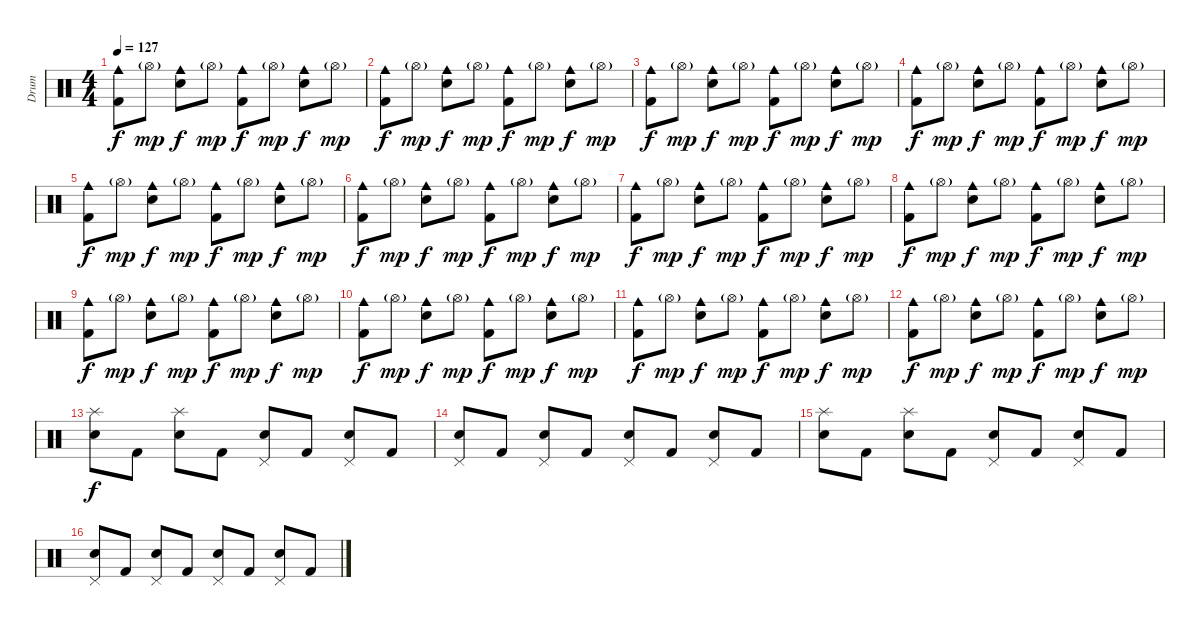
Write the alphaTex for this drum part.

\track ("Drum" "Drum") {instrument percussion}
\staff {score}
\articulation defaults
\ts (4 4)
\tempo 127
\clef neutral
\ks c
("Kick (hit) 2" "Cowbell medium (hit)").8{dy f} "Hi-Hat (open)"{g}.8{dy mp} ("Electric Snare (hit)" "Cowbell medium (hit)").8{dy f} "Hi-Hat (open)"{g}.8{dy mp} ("Kick (hit) 2" "Cowbell medium (hit)").8{dy f} "Hi-Hat (open)"{g}.8{dy mp} ("Electric Snare (hit)" "Cowbell medium (hit)").8{dy f} "Hi-Hat (open)"{g}.8{dy mp} |
("Kick (hit) 2" "Cowbell medium (hit)").8{dy f} "Hi-Hat (open)"{g}.8{dy mp} ("Electric Snare (hit)" "Cowbell medium (hit)").8{dy f} "Hi-Hat (open)"{g}.8{dy mp} ("Kick (hit) 2" "Cowbell medium (hit)").8{dy f} "Hi-Hat (open)"{g}.8{dy mp} ("Electric Snare (hit)" "Cowbell medium (hit)").8{dy f} "Hi-Hat (open)"{g}.8{dy mp} |
("Kick (hit) 2" "Cowbell medium (hit)").8{dy f} "Hi-Hat (open)"{g}.8{dy mp} ("Electric Snare (hit)" "Cowbell medium (hit)").8{dy f} "Hi-Hat (open)"{g}.8{dy mp} ("Kick (hit) 2" "Cowbell medium (hit)").8{dy f} "Hi-Hat (open)"{g}.8{dy mp} ("Electric Snare (hit)" "Cowbell medium (hit)").8{dy f} "Hi-Hat (open)"{g}.8{dy mp} |
("Kick (hit) 2" "Cowbell medium (hit)").8{dy f} "Hi-Hat (open)"{g}.8{dy mp} ("Electric Snare (hit)" "Cowbell medium (hit)").8{dy f} "Hi-Hat (open)"{g}.8{dy mp} ("Kick (hit) 2" "Cowbell medium (hit)").8{dy f} "Hi-Hat (open)"{g}.8{dy mp} ("Electric Snare (hit)" "Cowbell medium (hit)").8{dy f} "Hi-Hat (open)"{g}.8{dy mp} |
("Kick (hit) 2" "Cowbell medium (hit)").8{dy f} "Hi-Hat (open)"{g}.8{dy mp} ("Electric Snare (hit)" "Cowbell medium (hit)").8{dy f} "Hi-Hat (open)"{g}.8{dy mp} ("Kick (hit) 2" "Cowbell medium (hit)").8{dy f} "Hi-Hat (open)"{g}.8{dy mp} ("Electric Snare (hit)" "Cowbell medium (hit)").8{dy f} "Hi-Hat (open)"{g}.8{dy mp} |
("Kick (hit) 2" "Cowbell medium (hit)").8{dy f} "Hi-Hat (open)"{g}.8{dy mp} ("Electric Snare (hit)" "Cowbell medium (hit)").8{dy f} "Hi-Hat (open)"{g}.8{dy mp} ("Kick (hit) 2" "Cowbell medium (hit)").8{dy f} "Hi-Hat (open)"{g}.8{dy mp} ("Electric Snare (hit)" "Cowbell medium (hit)").8{dy f} "Hi-Hat (open)"{g}.8{dy mp} |
("Kick (hit) 2" "Cowbell medium (hit)").8{dy f} "Hi-Hat (open)"{g}.8{dy mp} ("Electric Snare (hit)" "Cowbell medium (hit)").8{dy f} "Hi-Hat (open)"{g}.8{dy mp} ("Kick (hit) 2" "Cowbell medium (hit)").8{dy f} "Hi-Hat (open)"{g}.8{dy mp} ("Electric Snare (hit)" "Cowbell medium (hit)").8{dy f} "Hi-Hat (open)"{g}.8{dy mp} |
("Kick (hit) 2" "Cowbell medium (hit)").8{dy f} "Hi-Hat (open)"{g}.8{dy mp} ("Electric Snare (hit)" "Cowbell medium (hit)").8{dy f} "Hi-Hat (open)"{g}.8{dy mp} ("Kick (hit) 2" "Cowbell medium (hit)").8{dy f} "Hi-Hat (open)"{g}.8{dy mp} ("Electric Snare (hit)" "Cowbell medium (hit)").8{dy f} "Hi-Hat (open)"{g}.8{dy mp} |
("Kick (hit) 2" "Cowbell medium (hit)").8{dy f} "Hi-Hat (open)"{g}.8{dy mp} ("Electric Snare (hit)" "Cowbell medium (hit)").8{dy f} "Hi-Hat (open)"{g}.8{dy mp} ("Kick (hit) 2" "Cowbell medium (hit)").8{dy f} "Hi-Hat (open)"{g}.8{dy mp} ("Electric Snare (hit)" "Cowbell medium (hit)").8{dy f} "Hi-Hat (open)"{g}.8{dy mp} |
("Kick (hit) 2" "Cowbell medium (hit)").8{dy f} "Hi-Hat (open)"{g}.8{dy mp} ("Electric Snare (hit)" "Cowbell medium (hit)").8{dy f} "Hi-Hat (open)"{g}.8{dy mp} ("Kick (hit) 2" "Cowbell medium (hit)").8{dy f} "Hi-Hat (open)"{g}.8{dy mp} ("Electric Snare (hit)" "Cowbell medium (hit)").8{dy f} "Hi-Hat (open)"{g}.8{dy mp} |
("Kick (hit) 2" "Cowbell medium (hit)").8{dy f} "Hi-Hat (open)"{g}.8{dy mp} ("Electric Snare (hit)" "Cowbell medium (hit)").8{dy f} "Hi-Hat (open)"{g}.8{dy mp} ("Kick (hit) 2" "Cowbell medium (hit)").8{dy f} "Hi-Hat (open)"{g}.8{dy mp} ("Electric Snare (hit)" "Cowbell medium (hit)").8{dy f} "Hi-Hat (open)"{g}.8{dy mp} |
("Kick (hit) 2" "Cowbell medium (hit)").8{dy f} "Hi-Hat (open)"{g}.8{dy mp} ("Electric Snare (hit)" "Cowbell medium (hit)").8{dy f} "Hi-Hat (open)"{g}.8{dy mp} ("Kick (hit) 2" "Cowbell medium (hit)").8{dy f} "Hi-Hat (open)"{g}.8{dy mp} ("Electric Snare (hit)" "Cowbell medium (hit)").8{dy f} "Hi-Hat (open)"{g}.8{dy mp} |
("Electric Snare (hit)" "Splash (hit)").8{dy f} "Kick (hit) 2".8 ("Electric Snare (hit)" "Splash (hit)").8 "Kick (hit) 2".8 ("Electric Snare (hit)" "Pedal Hi-Hat (hit)").8 "Kick (hit) 2".8 ("Electric Snare (hit)" "Pedal Hi-Hat (hit)").8 "Kick (hit) 2".8 |
("Electric Snare (hit)" "Pedal Hi-Hat (hit)").8 "Kick (hit) 2".8 ("Electric Snare (hit)" "Pedal Hi-Hat (hit)").8 "Kick (hit) 2".8 ("Electric Snare (hit)" "Pedal Hi-Hat (hit)").8 "Kick (hit) 2".8 ("Electric Snare (hit)" "Pedal Hi-Hat (hit)").8 "Kick (hit) 2".8 |
("Electric Snare (hit)" "Splash (hit)").8 "Kick (hit) 2".8 ("Electric Snare (hit)" "Splash (hit)").8 "Kick (hit) 2".8 ("Electric Snare (hit)" "Pedal Hi-Hat (hit)").8 "Kick (hit) 2".8 ("Electric Snare (hit)" "Pedal Hi-Hat (hit)").8 "Kick (hit) 2".8 |
("Electric Snare (hit)" "Pedal Hi-Hat (hit)").8 "Kick (hit) 2".8 ("Electric Snare (hit)" "Pedal Hi-Hat (hit)").8 "Kick (hit) 2".8 ("Electric Snare (hit)" "Pedal Hi-Hat (hit)").8 "Kick (hit) 2".8 ("Electric Snare (hit)" "Pedal Hi-Hat (hit)").8 "Kick (hit) 2".8
